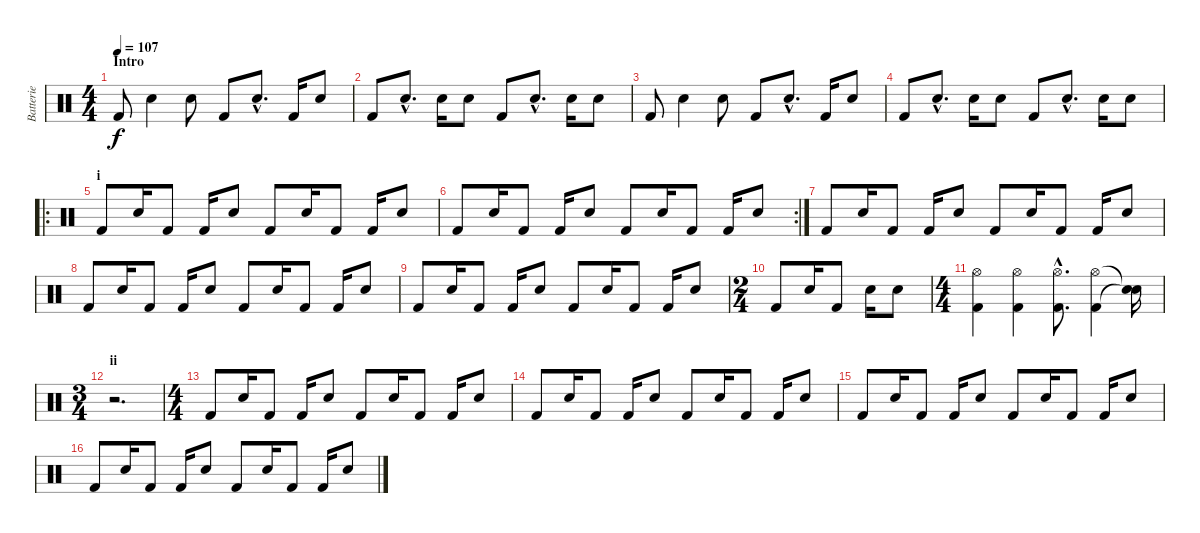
\track ("Batterie" "Batterie") {instrument percussion}
\staff {score}
\articulation defaults
\ts (4 4)
\section ("" "Intro")
\tempo 107
\clef neutral
\ks c "Kick (hit) 2".8{dy f} "Electric Snare (hit)".4 "Electric Snare (hit)".8 "Kick (hit) 2".8 "Electric Snare (hit)"{hac}.8{d} "Kick (hit) 2".16 "Electric Snare (hit)".8
|
"Kick (hit) 2".8 "Electric Snare (hit)"{hac}.8{d} "Electric Snare (hit)".16 "Electric Snare (hit)".8 "Kick (hit) 2".8 "Electric Snare (hit)"{hac}.8{d} "Electric Snare (hit)".16 "Electric Snare (hit)".8 |
\section ("" "")
"Kick (hit) 2".8 "Electric Snare (hit)".4 "Electric Snare (hit)".8 "Kick (hit) 2".8 "Electric Snare (hit)"{hac}.8{d} "Kick (hit) 2".16 "Electric Snare (hit)".8 |
"Kick (hit) 2".8 "Electric Snare (hit)"{hac}.8{d} "Electric Snare (hit)".16 "Electric Snare (hit)".8 "Kick (hit) 2".8 "Electric Snare (hit)"{hac}.8{d} "Electric Snare (hit)".16 "Electric Snare (hit)".8 |
\ro
\section ("" "i")
"Kick (hit) 2".8 "Electric Snare (hit)".16 "Kick (hit) 2".8 "Kick (hit) 2".16 "Electric Snare (hit)".8 "Kick (hit) 2".8 "Electric Snare (hit)".16 "Kick (hit) 2".8 "Kick (hit) 2".16 "Electric Snare (hit)".8 |
\rc 2 "Kick (hit) 2".8 "Electric Snare (hit)".16 "Kick (hit) 2".8 "Kick (hit) 2".16 "Electric Snare (hit)".8 "Kick (hit) 2".8 "Electric Snare (hit)".16 "Kick (hit) 2".8 "Kick (hit) 2".16 "Electric Snare (hit)".8
|
"Kick (hit) 2".8 "Electric Snare (hit)".16 "Kick (hit) 2".8 "Kick (hit) 2".16 "Electric Snare (hit)".8 "Kick (hit) 2".8 "Electric Snare (hit)".16 "Kick (hit) 2".8 "Kick (hit) 2".16 "Electric Snare (hit)".8 |
"Kick (hit) 2".8 "Electric Snare (hit)".16 "Kick (hit) 2".8 "Kick (hit) 2".16 "Electric Snare (hit)".8 "Kick (hit) 2".8 "Electric Snare (hit)".16 "Kick (hit) 2".8 "Kick (hit) 2".16 "Electric Snare (hit)".8 |
"Kick (hit) 2".8 "Electric Snare (hit)".16 "Kick (hit) 2".8 "Kick (hit) 2".16 "Electric Snare (hit)".8 "Kick (hit) 2".8 "Electric Snare (hit)".16 "Kick (hit) 2".8 "Kick (hit) 2".16 "Electric Snare (hit)".8 |
\ts (2 4)
"Kick (hit) 2".8 "Electric Snare (hit)".16 "Kick (hit) 2".8 "Electric Snare (hit)".16 "Electric Snare (hit)".8 |
\ts (4 4)
("Hi-Hat (open)" "Kick (hit) 2").4 ("Hi-Hat (open)" "Kick (hit) 2").4 ("Hi-Hat (open)"{hac} "Kick (hit) 2"{hac}).8{d} ("Hi-Hat (open)" "Kick (hit) 2").4 ("Snare (hit)"{t} "Snare (hit)"{t}).16 |
\ts (3 4)
\section ("" "ii")
r.2{d} |
\ts (4 4)
"Kick (hit) 2".8 "Electric Snare (hit)".16 "Kick (hit) 2".8 "Kick (hit) 2".16 "Electric Snare (hit)".8 "Kick (hit) 2".8 "Electric Snare (hit)".16 "Kick (hit) 2".8 "Kick (hit) 2".16 "Electric Snare (hit)".8 |
"Kick (hit) 2".8 "Electric Snare (hit)".16 "Kick (hit) 2".8 "Kick (hit) 2".16 "Electric Snare (hit)".8 "Kick (hit) 2".8 "Electric Snare (hit)".16 "Kick (hit) 2".8 "Kick (hit) 2".16 "Electric Snare (hit)".8 |
"Kick (hit) 2".8 "Electric Snare (hit)".16 "Kick (hit) 2".8 "Kick (hit) 2".16 "Electric Snare (hit)".8 "Kick (hit) 2".8 "Electric Snare (hit)".16 "Kick (hit) 2".8 "Kick (hit) 2".16 "Electric Snare (hit)".8 |
"Kick (hit) 2".8 "Electric Snare (hit)".16 "Kick (hit) 2".8 "Kick (hit) 2".16 "Electric Snare (hit)".8 "Kick (hit) 2".8 "Electric Snare (hit)".16 "Kick (hit) 2".8 "Kick (hit) 2".16 "Electric Snare (hit)".8
